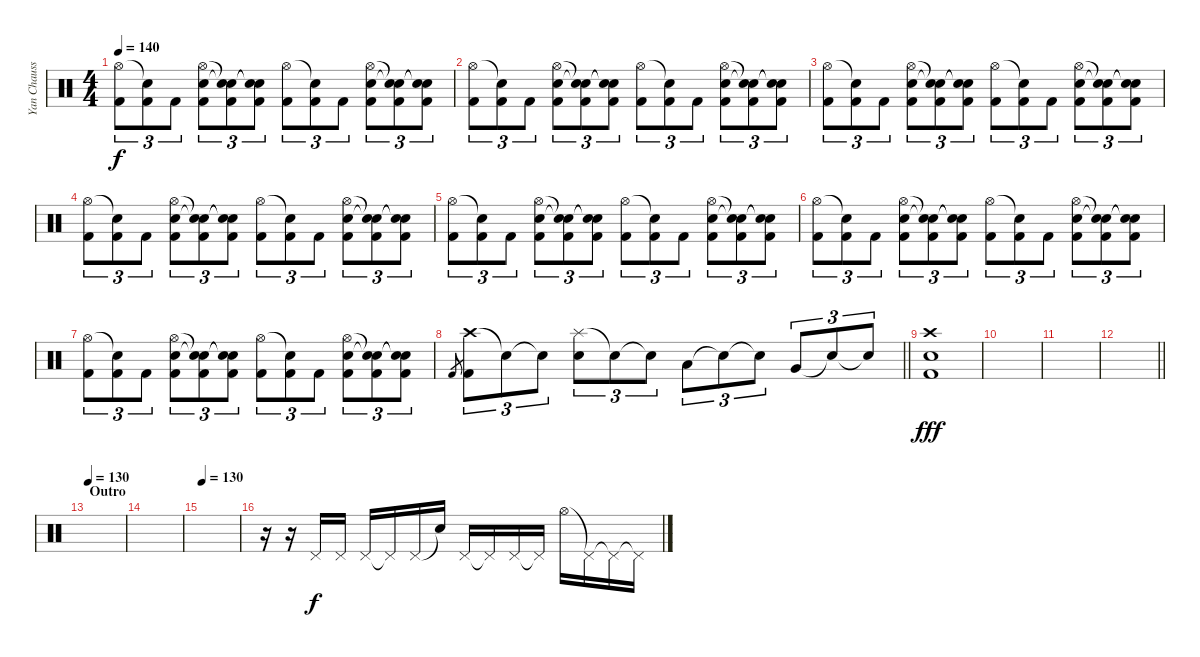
\track ("Yan Chausse" "Yan Chauss") {instrument percussion}
\staff {score}
\articulation defaults
\ts (4 4)
\tempo 140
\clef neutral
\ks c
("Hi-Hat (open)" "Kick (hit) 2").8{tu (3 2) dy f} ("Snare (hit)"{t} "Kick (hit) 2").8{tu (3 2)} "Kick (hit) 2".8{tu (3 2)} ("Hi-Hat (open)" "Snare (hit) 2" "Kick (hit) 2").8{tu (3 2)} ("Snare (hit)"{t} "Snare (hit)"{t} "Kick (hit) 2").8{tu (3 2)} ("Snare (hit)"{t} "Snare (hit)"{t} "Kick (hit) 2").8{tu (3 2)} ("Hi-Hat (open)" "Kick (hit) 2").8{tu (3 2)} ("Snare (hit)"{t} "Kick (hit) 2").8{tu (3 2)} "Kick (hit) 2".8{tu (3 2)} ("Hi-Hat (open)" "Snare (hit) 2" "Kick (hit) 2").8{tu (3 2)} ("Snare (hit)"{t} "Snare (hit)"{t} "Kick (hit) 2").8{tu (3 2)} ("Snare (hit)"{t} "Snare (hit)"{t} "Kick (hit) 2").8{tu (3 2)} |
("Hi-Hat (open)" "Kick (hit) 2").8{tu (3 2)} ("Snare (hit)"{t} "Kick (hit) 2").8{tu (3 2)} "Kick (hit) 2".8{tu (3 2)} ("Hi-Hat (open)" "Snare (hit) 2" "Kick (hit) 2").8{tu (3 2)} ("Snare (hit)"{t} "Snare (hit)"{t} "Kick (hit) 2").8{tu (3 2)} ("Snare (hit)"{t} "Snare (hit)"{t} "Kick (hit) 2").8{tu (3 2)} ("Hi-Hat (open)" "Kick (hit) 2").8{tu (3 2)} ("Snare (hit)"{t} "Kick (hit) 2").8{tu (3 2)} "Kick (hit) 2".8{tu (3 2)} ("Hi-Hat (open)" "Snare (hit) 2" "Kick (hit) 2").8{tu (3 2)} ("Snare (hit)"{t} "Snare (hit)"{t} "Kick (hit) 2").8{tu (3 2)} ("Snare (hit)"{t} "Snare (hit)"{t} "Kick (hit) 2").8{tu (3 2)} |
("Hi-Hat (open)" "Kick (hit) 2").8{tu (3 2)} ("Snare (hit)"{t} "Kick (hit) 2").8{tu (3 2)} "Kick (hit) 2".8{tu (3 2)} ("Hi-Hat (open)" "Snare (hit) 2" "Kick (hit) 2").8{tu (3 2)} ("Snare (hit)"{t} "Snare (hit)"{t} "Kick (hit) 2").8{tu (3 2)} ("Snare (hit)"{t} "Snare (hit)"{t} "Kick (hit) 2").8{tu (3 2)} ("Hi-Hat (open)" "Kick (hit) 2").8{tu (3 2)} ("Snare (hit)"{t} "Kick (hit) 2").8{tu (3 2)} "Kick (hit) 2".8{tu (3 2)} ("Hi-Hat (open)" "Snare (hit) 2" "Kick (hit) 2").8{tu (3 2)} ("Snare (hit)"{t} "Snare (hit)"{t} "Kick (hit) 2").8{tu (3 2)} ("Snare (hit)"{t} "Snare (hit)"{t} "Kick (hit) 2").8{tu (3 2)} |
("Hi-Hat (open)" "Kick (hit) 2").8{tu (3 2)} ("Snare (hit)"{t} "Kick (hit) 2").8{tu (3 2)} "Kick (hit) 2".8{tu (3 2)} ("Hi-Hat (open)" "Snare (hit) 2" "Kick (hit) 2").8{tu (3 2)} ("Snare (hit)"{t} "Snare (hit)"{t} "Kick (hit) 2").8{tu (3 2)} ("Snare (hit)"{t} "Snare (hit)"{t} "Kick (hit) 2").8{tu (3 2)} ("Hi-Hat (open)" "Kick (hit) 2").8{tu (3 2)} ("Snare (hit)"{t} "Kick (hit) 2").8{tu (3 2)} "Kick (hit) 2".8{tu (3 2)} ("Hi-Hat (open)" "Snare (hit) 2" "Kick (hit) 2").8{tu (3 2)} ("Snare (hit)"{t} "Snare (hit)"{t} "Kick (hit) 2").8{tu (3 2)} ("Snare (hit)"{t} "Snare (hit)"{t} "Kick (hit) 2").8{tu (3 2)} |
("Hi-Hat (open)" "Kick (hit) 2").8{tu (3 2)} ("Snare (hit)"{t} "Kick (hit) 2").8{tu (3 2)} "Kick (hit) 2".8{tu (3 2)} ("Hi-Hat (open)" "Snare (hit) 2" "Kick (hit) 2").8{tu (3 2)} ("Snare (hit)"{t} "Snare (hit)"{t} "Kick (hit) 2").8{tu (3 2)} ("Snare (hit)"{t} "Snare (hit)"{t} "Kick (hit) 2").8{tu (3 2)} ("Hi-Hat (open)" "Kick (hit) 2").8{tu (3 2)} ("Snare (hit)"{t} "Kick (hit) 2").8{tu (3 2)} "Kick (hit) 2".8{tu (3 2)} ("Hi-Hat (open)" "Snare (hit) 2" "Kick (hit) 2").8{tu (3 2)} ("Snare (hit)"{t} "Snare (hit)"{t} "Kick (hit) 2").8{tu (3 2)} ("Snare (hit)"{t} "Snare (hit)"{t} "Kick (hit) 2").8{tu (3 2)} |
("Hi-Hat (open)" "Kick (hit) 2").8{tu (3 2)} ("Snare (hit)"{t} "Kick (hit) 2").8{tu (3 2)} "Kick (hit) 2".8{tu (3 2)} ("Hi-Hat (open)" "Snare (hit) 2" "Kick (hit) 2").8{tu (3 2)} ("Snare (hit)"{t} "Snare (hit)"{t} "Kick (hit) 2").8{tu (3 2)} ("Snare (hit)"{t} "Snare (hit)"{t} "Kick (hit) 2").8{tu (3 2)} ("Hi-Hat (open)" "Kick (hit) 2").8{tu (3 2)} ("Snare (hit)"{t} "Kick (hit) 2").8{tu (3 2)} "Kick (hit) 2".8{tu (3 2)} ("Hi-Hat (open)" "Snare (hit) 2" "Kick (hit) 2").8{tu (3 2)} ("Snare (hit)"{t} "Snare (hit)"{t} "Kick (hit) 2").8{tu (3 2)} ("Snare (hit)"{t} "Snare (hit)"{t} "Kick (hit) 2").8{tu (3 2)} |
("Hi-Hat (open)" "Kick (hit) 2").8{tu (3 2)} ("Snare (hit)"{t} "Kick (hit) 2").8{tu (3 2)} "Kick (hit) 2".8{tu (3 2)} ("Hi-Hat (open)" "Snare (hit) 2" "Kick (hit) 2").8{tu (3 2)} ("Snare (hit)"{t} "Snare (hit)"{t} "Kick (hit) 2").8{tu (3 2)} ("Snare (hit)"{t} "Snare (hit)"{t} "Kick (hit) 2").8{tu (3 2)} ("Hi-Hat (open)" "Kick (hit) 2").8{tu (3 2)} ("Snare (hit)"{t} "Kick (hit) 2").8{tu (3 2)} "Kick (hit) 2".8{tu (3 2)} ("Hi-Hat (open)" "Snare (hit) 2" "Kick (hit) 2").8{tu (3 2)} ("Snare (hit)"{t} "Snare (hit)"{t} "Kick (hit) 2").8{tu (3 2)} ("Snare (hit)"{t} "Snare (hit)"{t} "Kick (hit) 2").8{tu (3 2)} |
\barLineRight lightlight "Kick (hit) 2".8{gr}
("Crash high (hit)" "Kick (hit) 2").8{tu (3 2)} "Snare (hit)"{t}.8{tu (3 2)} "Snare (hit)"{t}.8{tu (3 2)} ("Splash (hit)" "Snare (hit) 2").8{tu (3 2)} "Snare (hit)"{t}.8{tu (3 2)} "Snare (hit)"{t}.8{tu (3 2)} "Low Tom (hit)".8{tu (3 2)} "Snare (hit)"{t}.8{tu (3 2)} "Snare (hit)"{t}.8{tu (3 2)} "Very Low Tom (hit)".8{tu (3 2)} "Snare (hit)"{t}.8{tu (3 2)} "Snare (hit)"{t}.8{tu (3 2)} |
("Crash high (hit)" "Snare (hit) 2" "Kick (hit) 2").1{dy fff} |
|
|
\barLineRight lightlight
|
\section ("" "Outro")
\tempo 130
|
|
\tempo 130
|
r.16 r.16 "Pedal Hi-Hat (hit)".16{dy f} "Pedal Hi-Hat (hit)".16 "Pedal Hi-Hat (hit)".16 "Pedal Hi-Hat (hit)"{t}.16 "Pedal Hi-Hat (hit)".16 "Snare (hit)"{t}.16 "Pedal Hi-Hat (hit)".16 "Pedal Hi-Hat (hit)"{t}.16 "Pedal Hi-Hat (hit)".16 "Pedal Hi-Hat (hit)"{t}.16 "Hi-Hat (open)".16 "Pedal Hi-Hat (hit)"{t}.16 "Pedal Hi-Hat (hit)"{t}.16 "Pedal Hi-Hat (hit)"{t}.16
